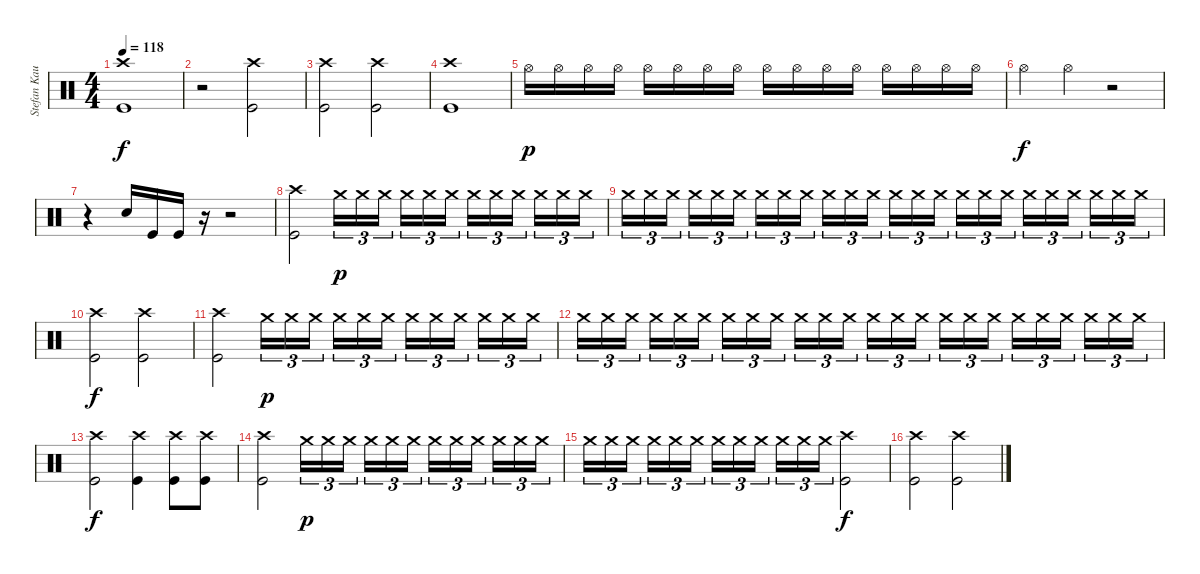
\track ("Stefan Kaufmann" "Stefan Kau") {instrument percussion}
\staff {score}
\articulation defaults
\ts (4 4)
\tempo 118
\clef neutral
\ks c
("Crash high (hit)" "Kick (hit)").1{dy f} |
r.2 ("Crash high (hit)" "Kick (hit)").2 |
("Crash high (hit)" "Kick (hit)").2 ("Crash high (hit)" "Kick (hit)").2 |
("Crash high (hit)" "Kick (hit)").1 |
"Hi-Hat (open)".16{dy p} "Hi-Hat (open)".16 "Hi-Hat (open)".16 "Hi-Hat (open)".16 "Hi-Hat (open)".16 "Hi-Hat (open)".16 "Hi-Hat (open)".16 "Hi-Hat (open)".16 "Hi-Hat (open)".16 "Hi-Hat (open)".16 "Hi-Hat (open)".16 "Hi-Hat (open)".16 "Hi-Hat (open)".16 "Hi-Hat (open)".16 "Hi-Hat (open)".16 "Hi-Hat (open)".16 |
"Hi-Hat (open)".4{dy f} "Hi-Hat (open)".4 r.2 |
r.4 "Snare (hit) 2".16 "Kick (hit)".16 "Kick (hit)".16 r.16 r.2 |
("Crash high (hit)" "Kick (hit)").2 "Crash medium (hit)".16{tu (3 2) dy p} "Crash medium (hit)".16{tu (3 2)} "Crash medium (hit)".16{tu (3 2)} "Crash medium (hit)".16{tu (3 2)} "Crash medium (hit)".16{tu (3 2)} "Crash medium (hit)".16{tu (3 2)} "Crash medium (hit)".16{tu (3 2)} "Crash medium (hit)".16{tu (3 2)} "Crash medium (hit)".16{tu (3 2)} "Crash medium (hit)".16{tu (3 2)} "Crash medium (hit)".16{tu (3 2)} "Crash medium (hit)".16{tu (3 2)} |
"Crash medium (hit)".16{tu (3 2)} "Crash medium (hit)".16{tu (3 2)} "Crash medium (hit)".16{tu (3 2)} "Crash medium (hit)".16{tu (3 2)} "Crash medium (hit)".16{tu (3 2)} "Crash medium (hit)".16{tu (3 2)} "Crash medium (hit)".16{tu (3 2)} "Crash medium (hit)".16{tu (3 2)} "Crash medium (hit)".16{tu (3 2)} "Crash medium (hit)".16{tu (3 2)} "Crash medium (hit)".16{tu (3 2)} "Crash medium (hit)".16{tu (3 2)} "Crash medium (hit)".16{tu (3 2)} "Crash medium (hit)".16{tu (3 2)} "Crash medium (hit)".16{tu (3 2)} "Crash medium (hit)".16{tu (3 2)} "Crash medium (hit)".16{tu (3 2)} "Crash medium (hit)".16{tu (3 2)} "Crash medium (hit)".16{tu (3 2)} "Crash medium (hit)".16{tu (3 2)} "Crash medium (hit)".16{tu (3 2)} "Crash medium (hit)".16{tu (3 2)} "Crash medium (hit)".16{tu (3 2)} "Crash medium (hit)".16{tu (3 2)} |
("Crash high (hit)" "Kick (hit)").2{dy f} ("Crash high (hit)" "Kick (hit)").2 |
("Crash high (hit)" "Kick (hit)").2 "Crash medium (hit)".16{tu (3 2) dy p} "Crash medium (hit)".16{tu (3 2)} "Crash medium (hit)".16{tu (3 2)} "Crash medium (hit)".16{tu (3 2)} "Crash medium (hit)".16{tu (3 2)} "Crash medium (hit)".16{tu (3 2)} "Crash medium (hit)".16{tu (3 2)} "Crash medium (hit)".16{tu (3 2)} "Crash medium (hit)".16{tu (3 2)} "Crash medium (hit)".16{tu (3 2)} "Crash medium (hit)".16{tu (3 2)} "Crash medium (hit)".16{tu (3 2)} |
"Crash medium (hit)".16{tu (3 2)} "Crash medium (hit)".16{tu (3 2)} "Crash medium (hit)".16{tu (3 2)} "Crash medium (hit)".16{tu (3 2)} "Crash medium (hit)".16{tu (3 2)} "Crash medium (hit)".16{tu (3 2)} "Crash medium (hit)".16{tu (3 2)} "Crash medium (hit)".16{tu (3 2)} "Crash medium (hit)".16{tu (3 2)} "Crash medium (hit)".16{tu (3 2)} "Crash medium (hit)".16{tu (3 2)} "Crash medium (hit)".16{tu (3 2)} "Crash medium (hit)".16{tu (3 2)} "Crash medium (hit)".16{tu (3 2)} "Crash medium (hit)".16{tu (3 2)} "Crash medium (hit)".16{tu (3 2)} "Crash medium (hit)".16{tu (3 2)} "Crash medium (hit)".16{tu (3 2)} "Crash medium (hit)".16{tu (3 2)} "Crash medium (hit)".16{tu (3 2)} "Crash medium (hit)".16{tu (3 2)} "Crash medium (hit)".16{tu (3 2)} "Crash medium (hit)".16{tu (3 2)} "Crash medium (hit)".16{tu (3 2)} |
("Crash high (hit)" "Kick (hit)").2{dy f} ("Crash high (hit)" "Kick (hit)").4 ("Crash high (hit)" "Kick (hit)").8 ("Crash high (hit)" "Kick (hit)").8 |
("Crash high (hit)" "Kick (hit)").2 "Crash medium (hit)".16{tu (3 2) dy p} "Crash medium (hit)".16{tu (3 2)} "Crash medium (hit)".16{tu (3 2)} "Crash medium (hit)".16{tu (3 2)} "Crash medium (hit)".16{tu (3 2)} "Crash medium (hit)".16{tu (3 2)} "Crash medium (hit)".16{tu (3 2)} "Crash medium (hit)".16{tu (3 2)} "Crash medium (hit)".16{tu (3 2)} "Crash medium (hit)".16{tu (3 2)} "Crash medium (hit)".16{tu (3 2)} "Crash medium (hit)".16{tu (3 2)} |
"Crash medium (hit)".16{tu (3 2)} "Crash medium (hit)".16{tu (3 2)} "Crash medium (hit)".16{tu (3 2)} "Crash medium (hit)".16{tu (3 2)} "Crash medium (hit)".16{tu (3 2)} "Crash medium (hit)".16{tu (3 2)} "Crash medium (hit)".16{tu (3 2)} "Crash medium (hit)".16{tu (3 2)} "Crash medium (hit)".16{tu (3 2)} "Crash medium (hit)".16{tu (3 2)} "Crash medium (hit)".16{tu (3 2)} "Crash medium (hit)".16{tu (3 2)} ("Crash high (hit)" "Kick (hit)").2{dy f} |
("Crash high (hit)" "Kick (hit)").2 ("Crash high (hit)" "Kick (hit)").2
